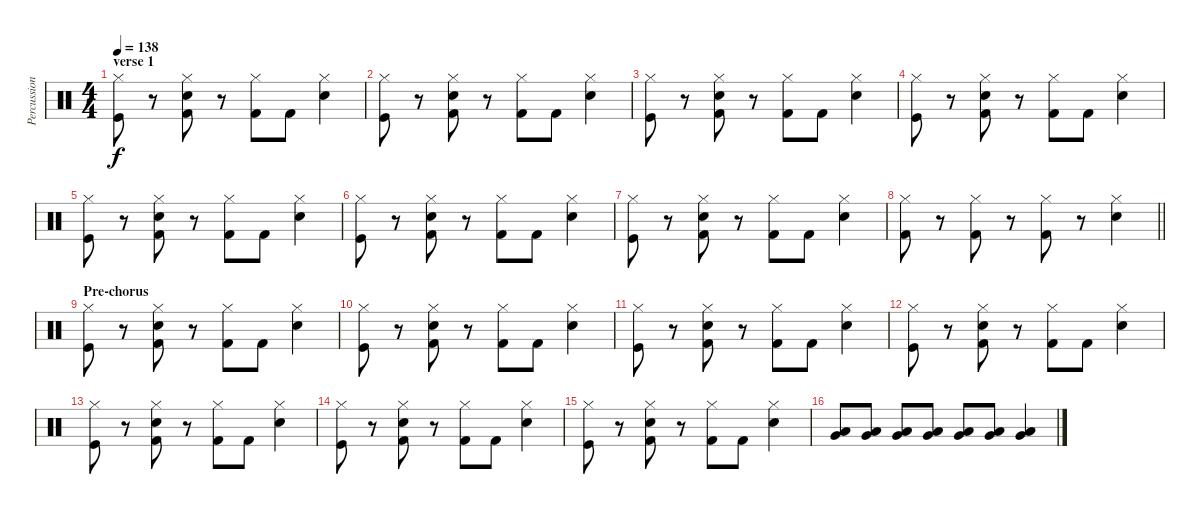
\track ("Percussion" "Percussion") {instrument percussion}
\staff {score}
\articulation defaults
\ts (4 4)
\section ("" "verse 1")
\tempo 138
\clef neutral
\ks c
("Hi-Hat (closed)" "Kick (hit)").8{dy f} r.8 ("Hi-Hat (closed)" "Electric Snare (hit)" "Kick (hit) 2").8 r.8 ("Hi-Hat (closed)" "Kick (hit) 2").8 "Kick (hit) 2".8 ("Hi-Hat (closed)" "Electric Snare (hit)").4 |
("Hi-Hat (closed)" "Kick (hit)").8 r.8 ("Hi-Hat (closed)" "Electric Snare (hit)" "Kick (hit) 2").8 r.8 ("Hi-Hat (closed)" "Kick (hit) 2").8 "Kick (hit) 2".8 ("Hi-Hat (closed)" "Electric Snare (hit)").4 |
("Hi-Hat (closed)" "Kick (hit)").8 r.8 ("Hi-Hat (closed)" "Electric Snare (hit)" "Kick (hit) 2").8 r.8 ("Hi-Hat (closed)" "Kick (hit) 2").8 "Kick (hit) 2".8 ("Hi-Hat (closed)" "Electric Snare (hit)").4 |
("Hi-Hat (closed)" "Kick (hit)").8 r.8 ("Hi-Hat (closed)" "Electric Snare (hit)" "Kick (hit) 2").8 r.8 ("Hi-Hat (closed)" "Kick (hit) 2").8 "Kick (hit) 2".8 ("Hi-Hat (closed)" "Electric Snare (hit)").4 |
("Hi-Hat (closed)" "Kick (hit)").8 r.8 ("Hi-Hat (closed)" "Electric Snare (hit)" "Kick (hit) 2").8 r.8 ("Hi-Hat (closed)" "Kick (hit) 2").8 "Kick (hit) 2".8 ("Hi-Hat (closed)" "Electric Snare (hit)").4 |
("Hi-Hat (closed)" "Kick (hit)").8 r.8 ("Hi-Hat (closed)" "Electric Snare (hit)" "Kick (hit) 2").8 r.8 ("Hi-Hat (closed)" "Kick (hit) 2").8 "Kick (hit) 2".8 ("Hi-Hat (closed)" "Electric Snare (hit)").4 |
("Hi-Hat (closed)" "Kick (hit)").8 r.8 ("Hi-Hat (closed)" "Electric Snare (hit)" "Kick (hit) 2").8 r.8 ("Hi-Hat (closed)" "Kick (hit) 2").8 "Kick (hit) 2".8 ("Hi-Hat (closed)" "Electric Snare (hit)").4 |
\barLineRight lightlight
("Hi-Hat (closed)" "Kick (hit) 2").8 r.8 ("Hi-Hat (closed)" "Kick (hit) 2").8 r.8 ("Hi-Hat (closed)" "Kick (hit) 2").8 r.8 ("Hi-Hat (closed)" "Electric Snare (hit)").4 |
\section ("" "Pre-chorus")
("Hi-Hat (closed)" "Kick (hit)").8 r.8 ("Hi-Hat (closed)" "Electric Snare (hit)" "Kick (hit) 2").8 r.8 ("Hi-Hat (closed)" "Kick (hit) 2").8 "Kick (hit) 2".8 ("Hi-Hat (closed)" "Electric Snare (hit)").4 |
("Hi-Hat (closed)" "Kick (hit)").8 r.8 ("Hi-Hat (closed)" "Electric Snare (hit)" "Kick (hit) 2").8 r.8 ("Hi-Hat (closed)" "Kick (hit) 2").8 "Kick (hit) 2".8 ("Hi-Hat (closed)" "Electric Snare (hit)").4 |
("Hi-Hat (closed)" "Kick (hit)").8 r.8 ("Hi-Hat (closed)" "Electric Snare (hit)" "Kick (hit) 2").8 r.8 ("Hi-Hat (closed)" "Kick (hit) 2").8 "Kick (hit) 2".8 ("Hi-Hat (closed)" "Electric Snare (hit)").4 |
("Hi-Hat (closed)" "Kick (hit)").8 r.8 ("Hi-Hat (closed)" "Electric Snare (hit)" "Kick (hit) 2").8 r.8 ("Hi-Hat (closed)" "Kick (hit) 2").8 "Kick (hit) 2".8 ("Hi-Hat (closed)" "Electric Snare (hit)").4 |
("Hi-Hat (closed)" "Kick (hit)").8 r.8 ("Hi-Hat (closed)" "Electric Snare (hit)" "Kick (hit) 2").8 r.8 ("Hi-Hat (closed)" "Kick (hit) 2").8 "Kick (hit) 2".8 ("Hi-Hat (closed)" "Electric Snare (hit)").4 |
("Hi-Hat (closed)" "Kick (hit)").8 r.8 ("Hi-Hat (closed)" "Electric Snare (hit)" "Kick (hit) 2").8 r.8 ("Hi-Hat (closed)" "Kick (hit) 2").8 "Kick (hit) 2".8 ("Hi-Hat (closed)" "Electric Snare (hit)").4 |
("Hi-Hat (closed)" "Kick (hit)").8 r.8 ("Hi-Hat (closed)" "Electric Snare (hit)" "Kick (hit) 2").8 r.8 ("Hi-Hat (closed)" "Kick (hit) 2").8 "Kick (hit) 2".8 ("Hi-Hat (closed)" "Electric Snare (hit)").4 |
("Very Low Tom (hit)" "Low Floor Tom (hit)").8 ("Very Low Tom (hit)" "Low Floor Tom (hit)").8 ("Very Low Tom (hit)" "Low Floor Tom (hit)").8 ("Very Low Tom (hit)" "Low Floor Tom (hit)").8 ("Very Low Tom (hit)" "Low Floor Tom (hit)").8 ("Very Low Tom (hit)" "Low Floor Tom (hit)").8 ("Very Low Tom (hit)" "Low Floor Tom (hit)").4
